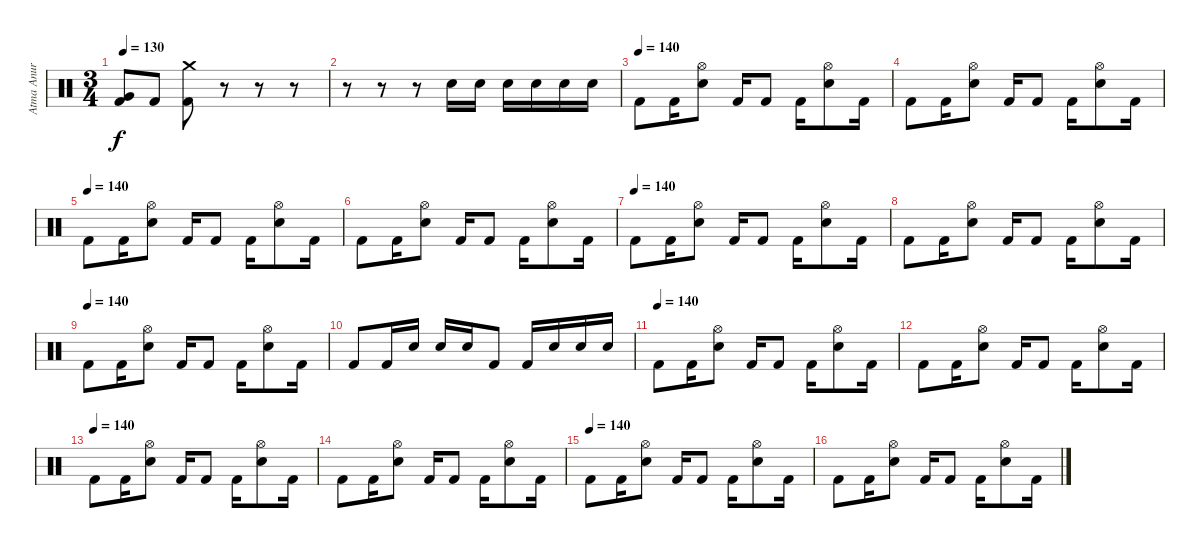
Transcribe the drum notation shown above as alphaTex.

\track ("Atma Anur" "Atma Anur") {instrument percussion}
\staff {score}
\articulation defaults
\ts (3 4)
\tempo 130
\clef neutral
\ks c
("Very Low Tom (hit)" "Kick (hit) 2").8{dy f} "Kick (hit) 2".8 ("Kick (hit) 2" "Crash medium (hit)").8 r.8 r.8 r.8 |
r.8 r.8 r.8 "Snare (hit) 2".16 "Snare (hit) 2".16 "Snare (hit) 2".16 "Snare (hit) 2".16 "Snare (hit) 2".16 "Snare (hit) 2".16 |
\tempo (140)
"Kick (hit) 2".8 "Kick (hit) 2".16 ("Hi-Hat (open)" "Snare (hit) 2").8 "Kick (hit) 2".16 "Kick (hit) 2".8 "Kick (hit) 2".16 ("Hi-Hat (open)" "Snare (hit) 2").8 "Kick (hit) 2".16 |
"Kick (hit) 2".8 "Kick (hit) 2".16 ("Hi-Hat (open)" "Snare (hit) 2").8 "Kick (hit) 2".16 "Kick (hit) 2".8 "Kick (hit) 2".16 ("Hi-Hat (open)" "Snare (hit) 2").8 "Kick (hit) 2".16 |
\tempo (140)
"Kick (hit) 2".8 "Kick (hit) 2".16 ("Hi-Hat (open)" "Snare (hit) 2").8 "Kick (hit) 2".16 "Kick (hit) 2".8 "Kick (hit) 2".16 ("Hi-Hat (open)" "Snare (hit) 2").8 "Kick (hit) 2".16 |
"Kick (hit) 2".8 "Kick (hit) 2".16 ("Hi-Hat (open)" "Snare (hit) 2").8 "Kick (hit) 2".16 "Kick (hit) 2".8 "Kick (hit) 2".16 ("Hi-Hat (open)" "Snare (hit) 2").8 "Kick (hit) 2".16 |
\tempo (140)
"Kick (hit) 2".8 "Kick (hit) 2".16 ("Hi-Hat (open)" "Snare (hit) 2").8 "Kick (hit) 2".16 "Kick (hit) 2".8 "Kick (hit) 2".16 ("Hi-Hat (open)" "Snare (hit) 2").8 "Kick (hit) 2".16 |
"Kick (hit) 2".8 "Kick (hit) 2".16 ("Hi-Hat (open)" "Snare (hit) 2").8 "Kick (hit) 2".16 "Kick (hit) 2".8 "Kick (hit) 2".16 ("Hi-Hat (open)" "Snare (hit) 2").8 "Kick (hit) 2".16 |
\tempo (140)
"Kick (hit) 2".8 "Kick (hit) 2".16 ("Hi-Hat (open)" "Snare (hit) 2").8 "Kick (hit) 2".16 "Kick (hit) 2".8 "Kick (hit) 2".16 ("Hi-Hat (open)" "Snare (hit) 2").8 "Kick (hit) 2".16 |
"Kick (hit) 2".8 "Kick (hit) 2".16 "Snare (hit) 2".16 "Snare (hit) 2".16 "Snare (hit) 2".16 "Kick (hit) 2".8 "Kick (hit) 2".16 "Snare (hit) 2".16 "Snare (hit) 2".16 "Snare (hit) 2".16 |
\tempo (140)
"Kick (hit) 2".8 "Kick (hit) 2".16 ("Hi-Hat (open)" "Snare (hit) 2").8 "Kick (hit) 2".16 "Kick (hit) 2".8 "Kick (hit) 2".16 ("Hi-Hat (open)" "Snare (hit) 2").8 "Kick (hit) 2".16 |
"Kick (hit) 2".8 "Kick (hit) 2".16 ("Hi-Hat (open)" "Snare (hit) 2").8 "Kick (hit) 2".16 "Kick (hit) 2".8 "Kick (hit) 2".16 ("Hi-Hat (open)" "Snare (hit) 2").8 "Kick (hit) 2".16 |
\tempo (140)
"Kick (hit) 2".8 "Kick (hit) 2".16 ("Hi-Hat (open)" "Snare (hit) 2").8 "Kick (hit) 2".16 "Kick (hit) 2".8 "Kick (hit) 2".16 ("Hi-Hat (open)" "Snare (hit) 2").8 "Kick (hit) 2".16 |
"Kick (hit) 2".8 "Kick (hit) 2".16 ("Hi-Hat (open)" "Snare (hit) 2").8 "Kick (hit) 2".16 "Kick (hit) 2".8 "Kick (hit) 2".16 ("Hi-Hat (open)" "Snare (hit) 2").8 "Kick (hit) 2".16 |
\tempo (140)
"Kick (hit) 2".8 "Kick (hit) 2".16 ("Hi-Hat (open)" "Snare (hit) 2").8 "Kick (hit) 2".16 "Kick (hit) 2".8 "Kick (hit) 2".16 ("Hi-Hat (open)" "Snare (hit) 2").8 "Kick (hit) 2".16 |
"Kick (hit) 2".8 "Kick (hit) 2".16 ("Hi-Hat (open)" "Snare (hit) 2").8 "Kick (hit) 2".16 "Kick (hit) 2".8 "Kick (hit) 2".16 ("Hi-Hat (open)" "Snare (hit) 2").8 "Kick (hit) 2".16
